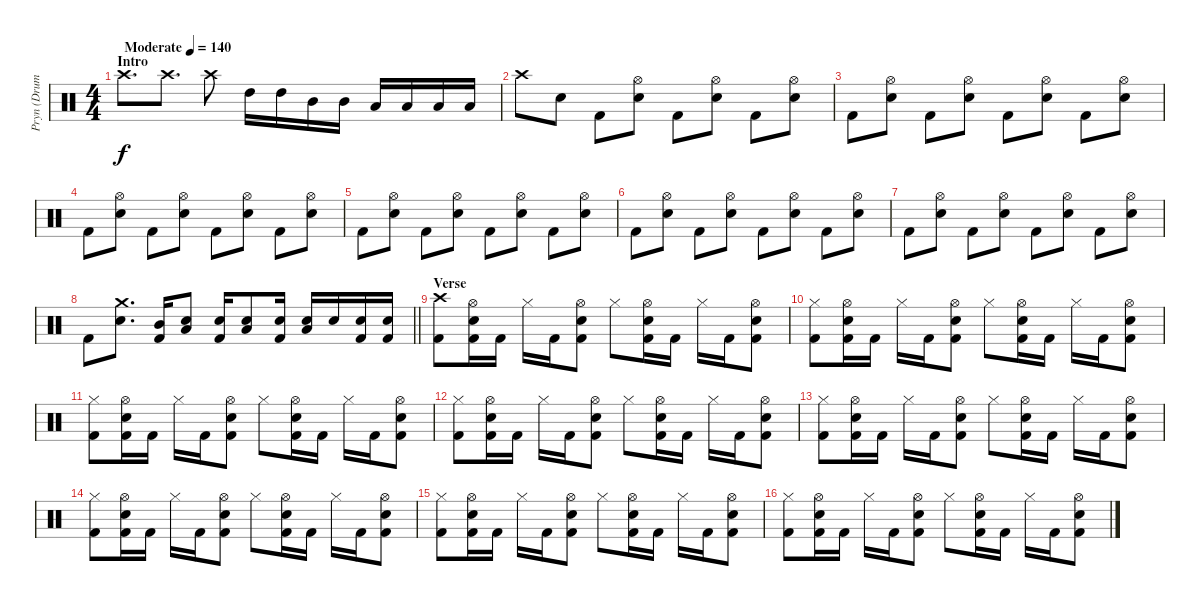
\track ("Pryn (Drums)" "Pryn (Drum") {instrument percussion}
\staff {score}
\articulation defaults
\ts (4 4)
\section ("" "Intro")
\tempo (140 "Moderate")
\clef neutral
\ks c "Crash high (hit)".8{d dy f} "Crash high (hit)".8{d} "Crash high (hit)".8 "High Tom (hit)".16 "High Tom (hit)".16 "Mid Tom (hit)".16 "Mid Tom (hit)".16 "Low Tom (hit)".16 "Low Tom (hit)".16 "Low Floor Tom (hit)".16 "Low Floor Tom (hit)".16
|
"Crash high (hit)".8 "Snare (hit) 2".8 "Kick (hit) 2".8 ("Snare (hit) 2" "Hi-Hat (open)").8 "Kick (hit) 2".8 ("Snare (hit) 2" "Hi-Hat (open)").8 "Kick (hit) 2".8 ("Snare (hit) 2" "Hi-Hat (open)").8 |
"Kick (hit) 2".8 ("Snare (hit) 2" "Hi-Hat (open)").8 "Kick (hit) 2".8 ("Snare (hit) 2" "Hi-Hat (open)").8 "Kick (hit) 2".8 ("Snare (hit) 2" "Hi-Hat (open)").8 "Kick (hit) 2".8 ("Snare (hit) 2" "Hi-Hat (open)").8 |
"Kick (hit) 2".8 ("Snare (hit) 2" "Hi-Hat (open)").8 "Kick (hit) 2".8 ("Snare (hit) 2" "Hi-Hat (open)").8 "Kick (hit) 2".8 ("Snare (hit) 2" "Hi-Hat (open)").8 "Kick (hit) 2".8 ("Snare (hit) 2" "Hi-Hat (open)").8 |
"Kick (hit) 2".8 ("Snare (hit) 2" "Hi-Hat (open)").8 "Kick (hit) 2".8 ("Snare (hit) 2" "Hi-Hat (open)").8 "Kick (hit) 2".8 ("Snare (hit) 2" "Hi-Hat (open)").8 "Kick (hit) 2".8 ("Snare (hit) 2" "Hi-Hat (open)").8 |
"Kick (hit) 2".8 ("Snare (hit) 2" "Hi-Hat (open)").8 "Kick (hit) 2".8 ("Snare (hit) 2" "Hi-Hat (open)").8 "Kick (hit) 2".8 ("Snare (hit) 2" "Hi-Hat (open)").8 "Kick (hit) 2".8 ("Snare (hit) 2" "Hi-Hat (open)").8 |
"Kick (hit) 2".8 ("Snare (hit) 2" "Hi-Hat (open)").8 "Kick (hit) 2".8 ("Snare (hit) 2" "Hi-Hat (open)").8 "Kick (hit) 2".8 ("Snare (hit) 2" "Hi-Hat (open)").8 "Kick (hit) 2".8 ("Snare (hit) 2" "Hi-Hat (open)").8 |
\barLineRight lightlight "Kick (hit) 2".8
("Snare (hit) 2" "Crash medium (hit)").8{d} ("Mid Tom (hit)" "Kick (hit) 2").16 ("Low Tom (hit)" "Snare (hit) 2").8 ("Snare (hit) 2" "Kick (hit) 2").16 ("Snare (hit) 2" "Low Tom (hit)").8 ("Snare (hit) 2" "Kick (hit) 2").16 ("Snare (hit) 2" "Low Tom (hit)").16 "Snare (hit) 2".16 ("Snare (hit) 2" "Kick (hit) 2").16 ("Snare (hit) 2" "Kick (hit) 2").16 |
\section ("" "Verse")
("Crash high (hit)" "Kick (hit) 2").8 ("Snare (hit) 2" "Hi-Hat (open)" "Kick (hit) 2").16 "Kick (hit) 2".16 "Hi-Hat (closed)".16 "Kick (hit) 2".16 ("Snare (hit) 2" "Hi-Hat (open)" "Kick (hit) 2").8 "Hi-Hat (closed)".8 ("Snare (hit) 2" "Hi-Hat (open)" "Kick (hit) 2").16 "Kick (hit) 2".16 "Hi-Hat (closed)".16 "Kick (hit) 2".16 ("Snare (hit) 2" "Hi-Hat (open)" "Kick (hit) 2").8 |
("Kick (hit) 2" "Hi-Hat (closed)").8 ("Snare (hit) 2" "Hi-Hat (open)" "Kick (hit) 2").16 "Kick (hit) 2".16 "Hi-Hat (closed)".16 "Kick (hit) 2".16 ("Snare (hit) 2" "Hi-Hat (open)" "Kick (hit) 2").8 "Hi-Hat (closed)".8 ("Snare (hit) 2" "Hi-Hat (open)" "Kick (hit) 2").16 "Kick (hit) 2".16 "Hi-Hat (closed)".16 "Kick (hit) 2".16 ("Snare (hit) 2" "Hi-Hat (open)" "Kick (hit) 2").8 |
("Kick (hit) 2" "Hi-Hat (closed)").8 ("Snare (hit) 2" "Hi-Hat (open)" "Kick (hit) 2").16 "Kick (hit) 2".16 "Hi-Hat (closed)".16 "Kick (hit) 2".16 ("Snare (hit) 2" "Hi-Hat (open)" "Kick (hit) 2").8 "Hi-Hat (closed)".8 ("Snare (hit) 2" "Hi-Hat (open)" "Kick (hit) 2").16 "Kick (hit) 2".16 "Hi-Hat (closed)".16 "Kick (hit) 2".16 ("Snare (hit) 2" "Hi-Hat (open)" "Kick (hit) 2").8 |
("Kick (hit) 2" "Hi-Hat (closed)").8 ("Snare (hit) 2" "Hi-Hat (open)" "Kick (hit) 2").16 "Kick (hit) 2".16 "Hi-Hat (closed)".16 "Kick (hit) 2".16 ("Snare (hit) 2" "Hi-Hat (open)" "Kick (hit) 2").8 "Hi-Hat (closed)".8 ("Snare (hit) 2" "Hi-Hat (open)" "Kick (hit) 2").16 "Kick (hit) 2".16 "Hi-Hat (closed)".16 "Kick (hit) 2".16 ("Snare (hit) 2" "Hi-Hat (open)" "Kick (hit) 2").8 |
("Kick (hit) 2" "Hi-Hat (closed)").8 ("Snare (hit) 2" "Hi-Hat (open)" "Kick (hit) 2").16 "Kick (hit) 2".16 "Hi-Hat (closed)".16 "Kick (hit) 2".16 ("Snare (hit) 2" "Hi-Hat (open)" "Kick (hit) 2").8 "Hi-Hat (closed)".8 ("Snare (hit) 2" "Hi-Hat (open)" "Kick (hit) 2").16 "Kick (hit) 2".16 "Hi-Hat (closed)".16 "Kick (hit) 2".16 ("Snare (hit) 2" "Hi-Hat (open)" "Kick (hit) 2").8 |
("Kick (hit) 2" "Hi-Hat (closed)").8 ("Snare (hit) 2" "Hi-Hat (open)" "Kick (hit) 2").16 "Kick (hit) 2".16 "Hi-Hat (closed)".16 "Kick (hit) 2".16 ("Snare (hit) 2" "Hi-Hat (open)" "Kick (hit) 2").8 "Hi-Hat (closed)".8 ("Snare (hit) 2" "Hi-Hat (open)" "Kick (hit) 2").16 "Kick (hit) 2".16 "Hi-Hat (closed)".16 "Kick (hit) 2".16 ("Snare (hit) 2" "Hi-Hat (open)" "Kick (hit) 2").8 |
("Kick (hit) 2" "Hi-Hat (closed)").8 ("Snare (hit) 2" "Hi-Hat (open)" "Kick (hit) 2").16 "Kick (hit) 2".16 "Hi-Hat (closed)".16 "Kick (hit) 2".16 ("Snare (hit) 2" "Hi-Hat (open)" "Kick (hit) 2").8 "Hi-Hat (closed)".8 ("Snare (hit) 2" "Hi-Hat (open)" "Kick (hit) 2").16 "Kick (hit) 2".16 "Hi-Hat (closed)".16 "Kick (hit) 2".16 ("Snare (hit) 2" "Hi-Hat (open)" "Kick (hit) 2").8 |
("Kick (hit) 2" "Hi-Hat (closed)").8 ("Snare (hit) 2" "Hi-Hat (open)" "Kick (hit) 2").16 "Kick (hit) 2".16 "Hi-Hat (closed)".16 "Kick (hit) 2".16 ("Snare (hit) 2" "Hi-Hat (open)" "Kick (hit) 2").8 "Hi-Hat (closed)".8 ("Snare (hit) 2" "Hi-Hat (open)" "Kick (hit) 2").16 "Kick (hit) 2".16 "Hi-Hat (closed)".16 "Kick (hit) 2".16 ("Snare (hit) 2" "Hi-Hat (open)" "Kick (hit) 2").8
